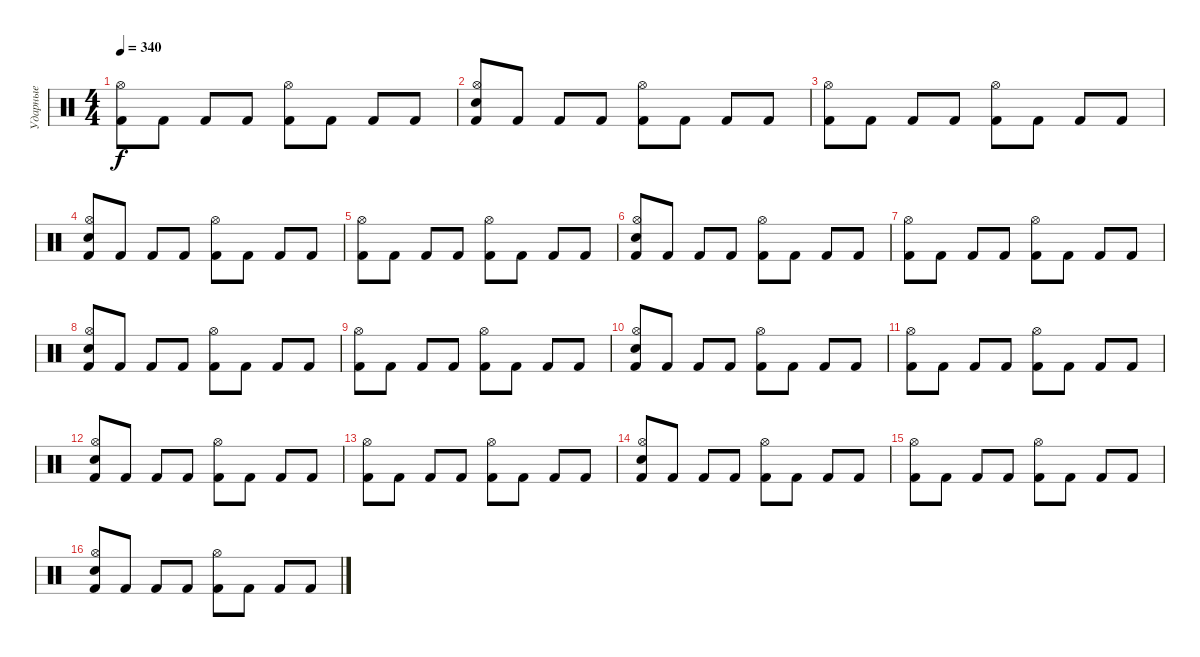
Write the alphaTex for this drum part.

\track ("Ударные" "Ударные") {instrument percussion}
\staff {score}
\articulation defaults
\ts (4 4)
\tempo 340
\clef neutral
\ks c
("Kick (hit) 2" "Hi-Hat (open)").8{dy f} "Kick (hit) 2".8 "Kick (hit) 2".8 "Kick (hit) 2".8 ("Hi-Hat (open)" "Kick (hit) 2").8 "Kick (hit) 2".8 "Kick (hit) 2".8 "Kick (hit) 2".8 |
("Electric Snare (hit)" "Hi-Hat (open)" "Kick (hit) 2").8 "Kick (hit) 2".8 "Kick (hit) 2".8 "Kick (hit) 2".8 ("Hi-Hat (open)" "Kick (hit) 2").8 "Kick (hit) 2".8 "Kick (hit) 2".8 "Kick (hit) 2".8 |
("Kick (hit) 2" "Hi-Hat (open)").8 "Kick (hit) 2".8 "Kick (hit) 2".8 "Kick (hit) 2".8 ("Hi-Hat (open)" "Kick (hit) 2").8 "Kick (hit) 2".8 "Kick (hit) 2".8 "Kick (hit) 2".8 |
("Electric Snare (hit)" "Hi-Hat (open)" "Kick (hit) 2").8 "Kick (hit) 2".8 "Kick (hit) 2".8 "Kick (hit) 2".8 ("Hi-Hat (open)" "Kick (hit) 2").8 "Kick (hit) 2".8 "Kick (hit) 2".8 "Kick (hit) 2".8 |
("Kick (hit) 2" "Hi-Hat (open)").8 "Kick (hit) 2".8 "Kick (hit) 2".8 "Kick (hit) 2".8 ("Hi-Hat (open)" "Kick (hit) 2").8 "Kick (hit) 2".8 "Kick (hit) 2".8 "Kick (hit) 2".8 |
("Electric Snare (hit)" "Hi-Hat (open)" "Kick (hit) 2").8 "Kick (hit) 2".8 "Kick (hit) 2".8 "Kick (hit) 2".8 ("Hi-Hat (open)" "Kick (hit) 2").8 "Kick (hit) 2".8 "Kick (hit) 2".8 "Kick (hit) 2".8 |
("Kick (hit) 2" "Hi-Hat (open)").8 "Kick (hit) 2".8 "Kick (hit) 2".8 "Kick (hit) 2".8 ("Hi-Hat (open)" "Kick (hit) 2").8 "Kick (hit) 2".8 "Kick (hit) 2".8 "Kick (hit) 2".8 |
("Electric Snare (hit)" "Hi-Hat (open)" "Kick (hit) 2").8 "Kick (hit) 2".8 "Kick (hit) 2".8 "Kick (hit) 2".8 ("Hi-Hat (open)" "Kick (hit) 2").8 "Kick (hit) 2".8 "Kick (hit) 2".8 "Kick (hit) 2".8 |
("Kick (hit) 2" "Hi-Hat (open)").8 "Kick (hit) 2".8 "Kick (hit) 2".8 "Kick (hit) 2".8 ("Hi-Hat (open)" "Kick (hit) 2").8 "Kick (hit) 2".8 "Kick (hit) 2".8 "Kick (hit) 2".8 |
("Electric Snare (hit)" "Hi-Hat (open)" "Kick (hit) 2").8 "Kick (hit) 2".8 "Kick (hit) 2".8 "Kick (hit) 2".8 ("Hi-Hat (open)" "Kick (hit) 2").8 "Kick (hit) 2".8 "Kick (hit) 2".8 "Kick (hit) 2".8 |
("Kick (hit) 2" "Hi-Hat (open)").8 "Kick (hit) 2".8 "Kick (hit) 2".8 "Kick (hit) 2".8 ("Hi-Hat (open)" "Kick (hit) 2").8 "Kick (hit) 2".8 "Kick (hit) 2".8 "Kick (hit) 2".8 |
("Electric Snare (hit)" "Hi-Hat (open)" "Kick (hit) 2").8 "Kick (hit) 2".8 "Kick (hit) 2".8 "Kick (hit) 2".8 ("Hi-Hat (open)" "Kick (hit) 2").8 "Kick (hit) 2".8 "Kick (hit) 2".8 "Kick (hit) 2".8 |
("Kick (hit) 2" "Hi-Hat (open)").8 "Kick (hit) 2".8 "Kick (hit) 2".8 "Kick (hit) 2".8 ("Hi-Hat (open)" "Kick (hit) 2").8 "Kick (hit) 2".8 "Kick (hit) 2".8 "Kick (hit) 2".8 |
("Electric Snare (hit)" "Hi-Hat (open)" "Kick (hit) 2").8 "Kick (hit) 2".8 "Kick (hit) 2".8 "Kick (hit) 2".8 ("Hi-Hat (open)" "Kick (hit) 2").8 "Kick (hit) 2".8 "Kick (hit) 2".8 "Kick (hit) 2".8 |
("Kick (hit) 2" "Hi-Hat (open)").8 "Kick (hit) 2".8 "Kick (hit) 2".8 "Kick (hit) 2".8 ("Hi-Hat (open)" "Kick (hit) 2").8 "Kick (hit) 2".8 "Kick (hit) 2".8 "Kick (hit) 2".8 |
("Electric Snare (hit)" "Hi-Hat (open)" "Kick (hit) 2").8 "Kick (hit) 2".8 "Kick (hit) 2".8 "Kick (hit) 2".8 ("Hi-Hat (open)" "Kick (hit) 2").8 "Kick (hit) 2".8 "Kick (hit) 2".8 "Kick (hit) 2".8
